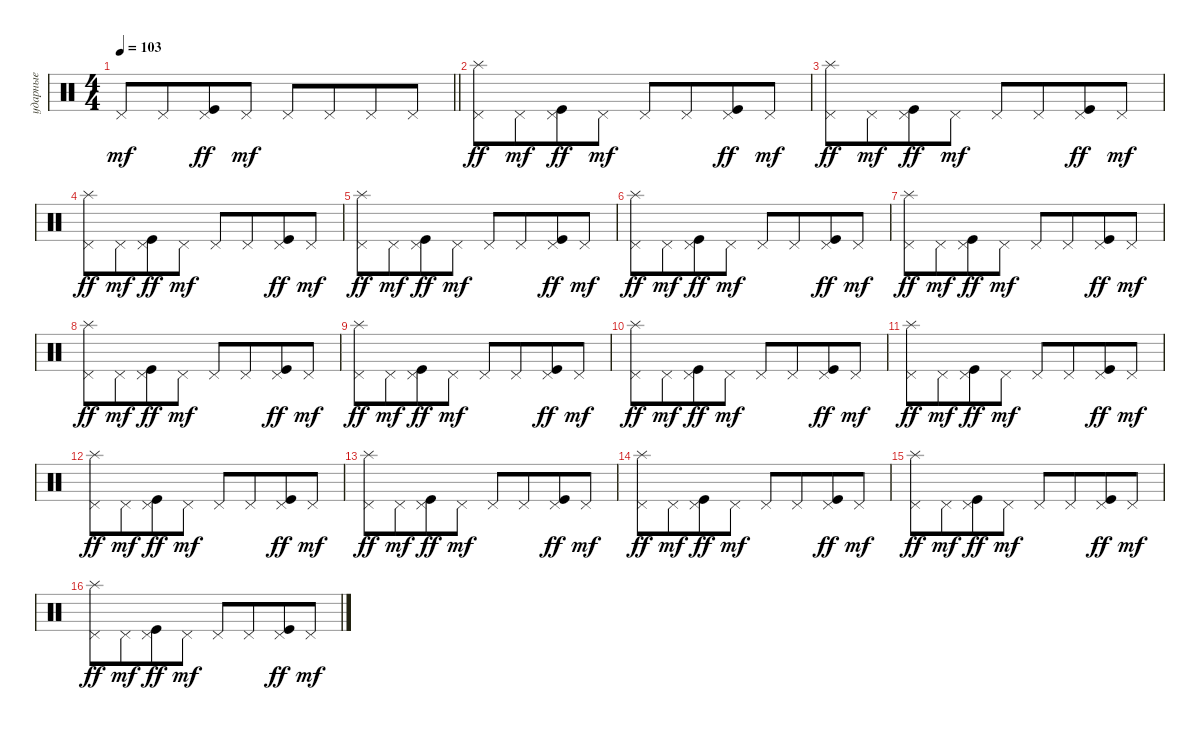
\track ("ударные" "ударные") {instrument percussion}
\staff {score}
\articulation defaults
\ts (4 4)
\tempo 103
\clef neutral
\barLineRight lightlight
\ks aminor "Pedal Hi-Hat (hit)".8{dy mf} "Pedal Hi-Hat (hit)".8{beam merge}
("Pedal Hi-Hat (hit)" "Kick (hit)").8{dy ff} "Pedal Hi-Hat (hit)".8{dy mf} "Pedal Hi-Hat (hit)".8 "Pedal Hi-Hat (hit)".8{beam merge} "Pedal Hi-Hat (hit)".8 "Pedal Hi-Hat (hit)".8 |
\section ("" "")
("Pedal Hi-Hat (hit)" "Splash (hit)").8{dy ff} "Pedal Hi-Hat (hit)".8{dy mf beam merge} ("Pedal Hi-Hat (hit)" "Kick (hit)").8{dy ff} "Pedal Hi-Hat (hit)".8{dy mf} "Pedal Hi-Hat (hit)".8 "Pedal Hi-Hat (hit)".8{beam merge} ("Pedal Hi-Hat (hit)" "Kick (hit)").8{dy ff} "Pedal Hi-Hat (hit)".8{dy mf} |
("Pedal Hi-Hat (hit)" "Splash (hit)").8{dy ff} "Pedal Hi-Hat (hit)".8{dy mf beam merge} ("Pedal Hi-Hat (hit)" "Kick (hit)").8{dy ff} "Pedal Hi-Hat (hit)".8{dy mf} "Pedal Hi-Hat (hit)".8 "Pedal Hi-Hat (hit)".8{beam merge} ("Pedal Hi-Hat (hit)" "Kick (hit)").8{dy ff} "Pedal Hi-Hat (hit)".8{dy mf} |
("Pedal Hi-Hat (hit)" "Splash (hit)").8{dy ff} "Pedal Hi-Hat (hit)".8{dy mf beam merge} ("Pedal Hi-Hat (hit)" "Kick (hit)").8{dy ff} "Pedal Hi-Hat (hit)".8{dy mf} "Pedal Hi-Hat (hit)".8 "Pedal Hi-Hat (hit)".8{beam merge} ("Pedal Hi-Hat (hit)" "Kick (hit)").8{dy ff} "Pedal Hi-Hat (hit)".8{dy mf} |
("Pedal Hi-Hat (hit)" "Splash (hit)").8{dy ff} "Pedal Hi-Hat (hit)".8{dy mf beam merge} ("Pedal Hi-Hat (hit)" "Kick (hit)").8{dy ff} "Pedal Hi-Hat (hit)".8{dy mf} "Pedal Hi-Hat (hit)".8 "Pedal Hi-Hat (hit)".8{beam merge} ("Pedal Hi-Hat (hit)" "Kick (hit)").8{dy ff} "Pedal Hi-Hat (hit)".8{dy mf} |
("Pedal Hi-Hat (hit)" "Splash (hit)").8{dy ff} "Pedal Hi-Hat (hit)".8{dy mf beam merge} ("Pedal Hi-Hat (hit)" "Kick (hit)").8{dy ff} "Pedal Hi-Hat (hit)".8{dy mf} "Pedal Hi-Hat (hit)".8 "Pedal Hi-Hat (hit)".8{beam merge} ("Pedal Hi-Hat (hit)" "Kick (hit)").8{dy ff} "Pedal Hi-Hat (hit)".8{dy mf} |
("Pedal Hi-Hat (hit)" "Splash (hit)").8{dy ff} "Pedal Hi-Hat (hit)".8{dy mf beam merge} ("Pedal Hi-Hat (hit)" "Kick (hit)").8{dy ff} "Pedal Hi-Hat (hit)".8{dy mf} "Pedal Hi-Hat (hit)".8 "Pedal Hi-Hat (hit)".8{beam merge} ("Pedal Hi-Hat (hit)" "Kick (hit)").8{dy ff} "Pedal Hi-Hat (hit)".8{dy mf} |
("Pedal Hi-Hat (hit)" "Splash (hit)").8{dy ff} "Pedal Hi-Hat (hit)".8{dy mf beam merge} ("Pedal Hi-Hat (hit)" "Kick (hit)").8{dy ff} "Pedal Hi-Hat (hit)".8{dy mf} "Pedal Hi-Hat (hit)".8 "Pedal Hi-Hat (hit)".8{beam merge} ("Pedal Hi-Hat (hit)" "Kick (hit)").8{dy ff} "Pedal Hi-Hat (hit)".8{dy mf} |
("Pedal Hi-Hat (hit)" "Splash (hit)").8{dy ff} "Pedal Hi-Hat (hit)".8{dy mf beam merge} ("Pedal Hi-Hat (hit)" "Kick (hit)").8{dy ff} "Pedal Hi-Hat (hit)".8{dy mf} "Pedal Hi-Hat (hit)".8 "Pedal Hi-Hat (hit)".8{beam merge} ("Pedal Hi-Hat (hit)" "Kick (hit)").8{dy ff} "Pedal Hi-Hat (hit)".8{dy mf} |
("Pedal Hi-Hat (hit)" "Splash (hit)").8{dy ff} "Pedal Hi-Hat (hit)".8{dy mf beam merge} ("Pedal Hi-Hat (hit)" "Kick (hit)").8{dy ff} "Pedal Hi-Hat (hit)".8{dy mf} "Pedal Hi-Hat (hit)".8 "Pedal Hi-Hat (hit)".8{beam merge} ("Pedal Hi-Hat (hit)" "Kick (hit)").8{dy ff} "Pedal Hi-Hat (hit)".8{dy mf} |
("Pedal Hi-Hat (hit)" "Splash (hit)").8{dy ff} "Pedal Hi-Hat (hit)".8{dy mf beam merge} ("Pedal Hi-Hat (hit)" "Kick (hit)").8{dy ff} "Pedal Hi-Hat (hit)".8{dy mf} "Pedal Hi-Hat (hit)".8 "Pedal Hi-Hat (hit)".8{beam merge} ("Pedal Hi-Hat (hit)" "Kick (hit)").8{dy ff} "Pedal Hi-Hat (hit)".8{dy mf} |
("Pedal Hi-Hat (hit)" "Splash (hit)").8{dy ff} "Pedal Hi-Hat (hit)".8{dy mf beam merge} ("Pedal Hi-Hat (hit)" "Kick (hit)").8{dy ff} "Pedal Hi-Hat (hit)".8{dy mf} "Pedal Hi-Hat (hit)".8 "Pedal Hi-Hat (hit)".8{beam merge} ("Pedal Hi-Hat (hit)" "Kick (hit)").8{dy ff} "Pedal Hi-Hat (hit)".8{dy mf} |
("Pedal Hi-Hat (hit)" "Splash (hit)").8{dy ff} "Pedal Hi-Hat (hit)".8{dy mf beam merge} ("Pedal Hi-Hat (hit)" "Kick (hit)").8{dy ff} "Pedal Hi-Hat (hit)".8{dy mf} "Pedal Hi-Hat (hit)".8 "Pedal Hi-Hat (hit)".8{beam merge} ("Pedal Hi-Hat (hit)" "Kick (hit)").8{dy ff} "Pedal Hi-Hat (hit)".8{dy mf} |
("Pedal Hi-Hat (hit)" "Splash (hit)").8{dy ff} "Pedal Hi-Hat (hit)".8{dy mf beam merge} ("Pedal Hi-Hat (hit)" "Kick (hit)").8{dy ff} "Pedal Hi-Hat (hit)".8{dy mf} "Pedal Hi-Hat (hit)".8 "Pedal Hi-Hat (hit)".8{beam merge} ("Pedal Hi-Hat (hit)" "Kick (hit)").8{dy ff} "Pedal Hi-Hat (hit)".8{dy mf} |
("Pedal Hi-Hat (hit)" "Splash (hit)").8{dy ff} "Pedal Hi-Hat (hit)".8{dy mf beam merge} ("Pedal Hi-Hat (hit)" "Kick (hit)").8{dy ff} "Pedal Hi-Hat (hit)".8{dy mf} "Pedal Hi-Hat (hit)".8 "Pedal Hi-Hat (hit)".8{beam merge} ("Pedal Hi-Hat (hit)" "Kick (hit)").8{dy ff} "Pedal Hi-Hat (hit)".8{dy mf} |
("Pedal Hi-Hat (hit)" "Splash (hit)").8{dy ff} "Pedal Hi-Hat (hit)".8{dy mf beam merge} ("Pedal Hi-Hat (hit)" "Kick (hit)").8{dy ff} "Pedal Hi-Hat (hit)".8{dy mf} "Pedal Hi-Hat (hit)".8 "Pedal Hi-Hat (hit)".8{beam merge} ("Pedal Hi-Hat (hit)" "Kick (hit)").8{dy ff} "Pedal Hi-Hat (hit)".8{dy mf}
